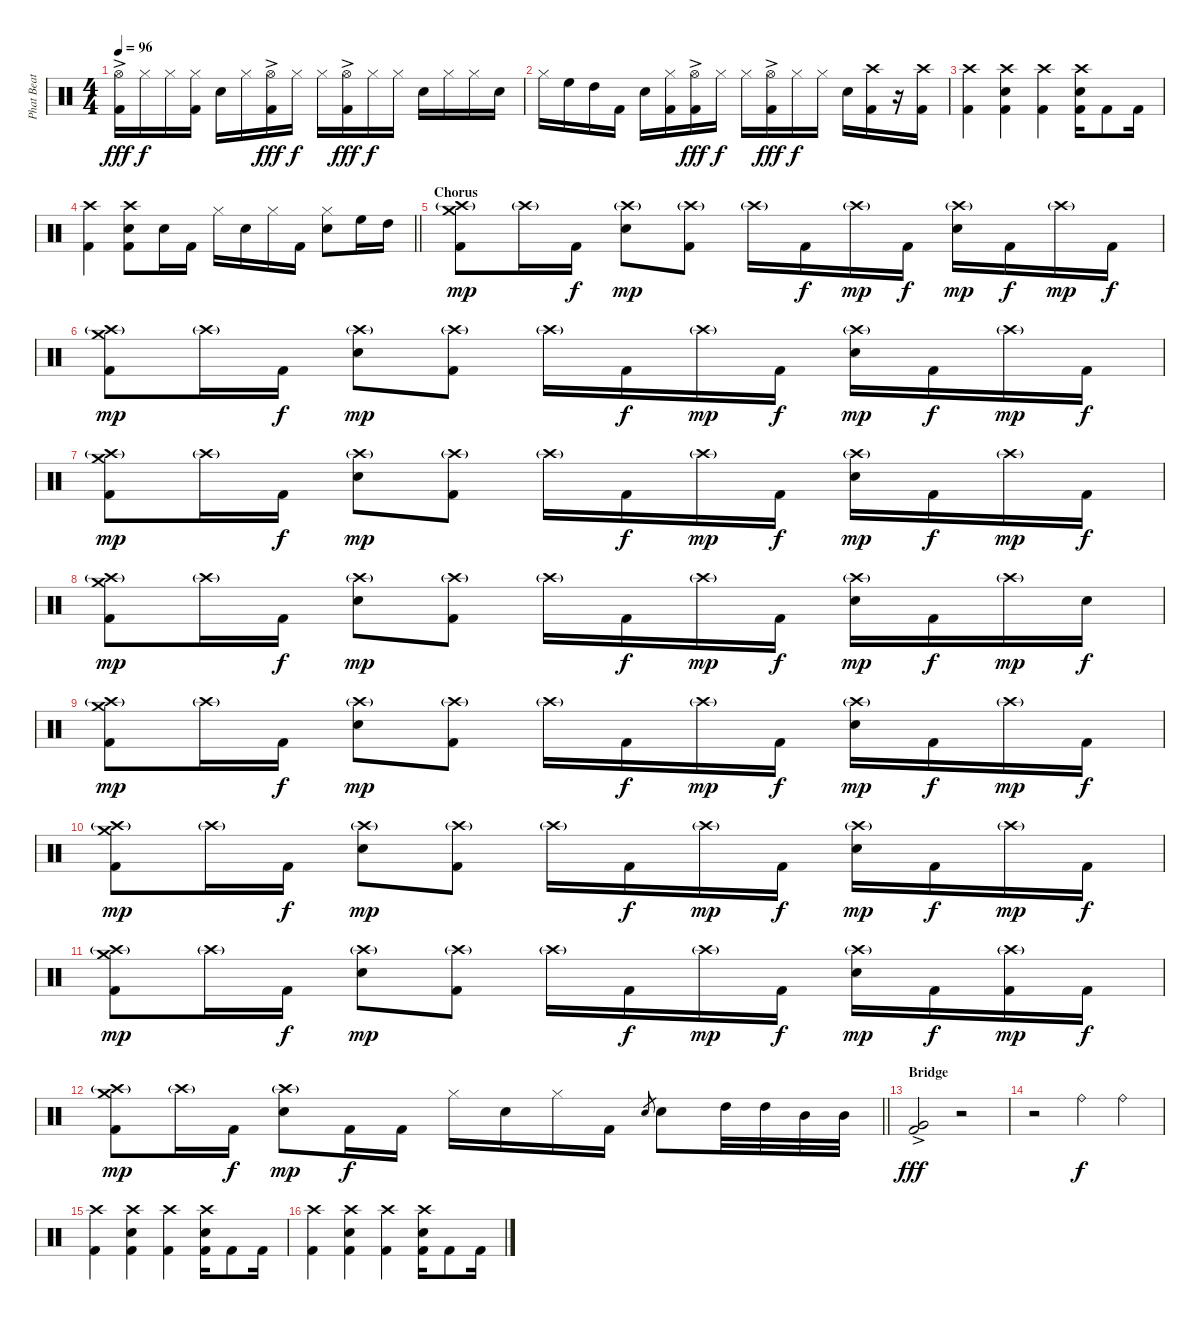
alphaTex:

\track ("Phat Beat" "Phat Beat") {instrument percussion}
\staff {score}
\articulation defaults
\ts (4 4)
\tempo 96
\clef neutral
\ks c
("Hi-Hat (open)"{ac} "Kick (hit) 2").16{dy fff} "Hi-Hat (closed)".16{dy f} "Hi-Hat (closed)".16 ("Hi-Hat (closed)" "Kick (hit) 2").16 "Snare (hit) 2".16 "Hi-Hat (closed)".16 ("Hi-Hat (open)"{ac} "Kick (hit) 2").16{dy fff} "Hi-Hat (closed)".16{dy f} "Hi-Hat (closed)".16 ("Hi-Hat (open)"{ac} "Kick (hit) 2").16{dy fff} "Hi-Hat (closed)".16{dy f} "Hi-Hat (closed)".16 "Snare (hit) 2".16 "Hi-Hat (closed)".16 "Hi-Hat (closed)".16 "Snare (hit) 2".16 |
"Hi-Hat (closed)".16 "High Floor Tom (hit)".16 "High Tom (hit)".16 "Kick (hit) 2".16 "Snare (hit) 2".16 ("Hi-Hat (closed)" "Kick (hit) 2").16 ("Hi-Hat (open)"{ac} "Kick (hit) 2").16{dy fff} "Hi-Hat (closed)".16{dy f} "Hi-Hat (closed)".16 ("Hi-Hat (open)"{ac} "Kick (hit) 2").16{dy fff} "Hi-Hat (closed)".16{dy f} "Hi-Hat (closed)".16 "Snare (hit) 2".16 ("Crash high (hit)" "Kick (hit) 2").16 r.16 ("Crash high (hit)" "Kick (hit) 2").16 |
("Crash high (hit)" "Kick (hit) 2").4 ("Crash high (hit)" "Snare (hit) 2" "Kick (hit) 2").4 ("Crash high (hit)" "Kick (hit) 2").4 ("Crash high (hit)" "Snare (hit) 2" "Kick (hit) 2").16 "Kick (hit) 2".8 "Kick (hit) 2".16 |
\barLineRight lightlight
("Crash high (hit)" "Kick (hit) 2").4 ("Crash high (hit)" "Snare (hit) 2" "Kick (hit) 2").8 "Snare (hit) 2".16 "Kick (hit) 2".16 "Hi-Hat (closed)".16 "Snare (hit) 2".16 "Hi-Hat (closed)".16 "Kick (hit) 2".16 ("Hi-Hat (closed)" "Snare (hit) 2").8 "High Floor Tom (hit)".16 "High Tom (hit)".16 |
\section ("" "Chorus")
("Crash high (hit)"{g} "Crash medium (hit)" "Kick (hit) 2").8{dy mp} "Crash high (hit)"{g}.16 "Kick (hit) 2".16{dy f} ("Crash high (hit)"{g} "Snare (hit) 2").8{dy mp} ("Crash high (hit)"{g} "Kick (hit) 2").8 "Crash high (hit)"{g}.16 "Kick (hit) 2".16{dy f} "Crash high (hit)"{g}.16{dy mp} "Kick (hit) 2".16{dy f} ("Crash high (hit)"{g} "Snare (hit) 2").16{dy mp} "Kick (hit) 2".16{dy f} "Crash high (hit)"{g}.16{dy mp} "Kick (hit) 2".16{dy f} |
("Crash high (hit)"{g} "Crash medium (hit)" "Kick (hit) 2").8{dy mp} "Crash high (hit)"{g}.16 "Kick (hit) 2".16{dy f} ("Crash high (hit)"{g} "Snare (hit) 2").8{dy mp} ("Crash high (hit)"{g} "Kick (hit) 2").8 "Crash high (hit)"{g}.16 "Kick (hit) 2".16{dy f} "Crash high (hit)"{g}.16{dy mp} "Kick (hit) 2".16{dy f} ("Crash high (hit)"{g} "Snare (hit) 2").16{dy mp} "Kick (hit) 2".16{dy f} "Crash high (hit)"{g}.16{dy mp} "Kick (hit) 2".16{dy f} |
("Crash high (hit)"{g} "Crash medium (hit)" "Kick (hit) 2").8{dy mp} "Crash high (hit)"{g}.16 "Kick (hit) 2".16{dy f} ("Crash high (hit)"{g} "Snare (hit) 2").8{dy mp} ("Crash high (hit)"{g} "Kick (hit) 2").8 "Crash high (hit)"{g}.16 "Kick (hit) 2".16{dy f} "Crash high (hit)"{g}.16{dy mp} "Kick (hit) 2".16{dy f} ("Crash high (hit)"{g} "Snare (hit) 2").16{dy mp} "Kick (hit) 2".16{dy f} "Crash high (hit)"{g}.16{dy mp} "Kick (hit) 2".16{dy f} |
("Crash high (hit)"{g} "Crash medium (hit)" "Kick (hit) 2").8{dy mp} "Crash high (hit)"{g}.16 "Kick (hit) 2".16{dy f} ("Crash high (hit)"{g} "Snare (hit) 2").8{dy mp} ("Crash high (hit)"{g} "Kick (hit) 2").8 "Crash high (hit)"{g}.16 "Kick (hit) 2".16{dy f} "Crash high (hit)"{g}.16{dy mp} "Kick (hit) 2".16{dy f} ("Crash high (hit)"{g} "Snare (hit) 2").16{dy mp} "Kick (hit) 2".16{dy f} "Crash high (hit)"{g}.16{dy mp} "Snare (hit) 2".16{dy f} |
("Crash high (hit)"{g} "Crash medium (hit)" "Kick (hit) 2").8{dy mp} "Crash high (hit)"{g}.16 "Kick (hit) 2".16{dy f} ("Crash high (hit)"{g} "Snare (hit) 2").8{dy mp} ("Crash high (hit)"{g} "Kick (hit) 2").8 "Crash high (hit)"{g}.16 "Kick (hit) 2".16{dy f} "Crash high (hit)"{g}.16{dy mp} "Kick (hit) 2".16{dy f} ("Crash high (hit)"{g} "Snare (hit) 2").16{dy mp} "Kick (hit) 2".16{dy f} "Crash high (hit)"{g}.16{dy mp} "Kick (hit) 2".16{dy f} |
("Crash high (hit)"{g} "Crash medium (hit)" "Kick (hit) 2").8{dy mp} "Crash high (hit)"{g}.16 "Kick (hit) 2".16{dy f} ("Crash high (hit)"{g} "Snare (hit) 2").8{dy mp} ("Crash high (hit)"{g} "Kick (hit) 2").8 "Crash high (hit)"{g}.16 "Kick (hit) 2".16{dy f} "Crash high (hit)"{g}.16{dy mp} "Kick (hit) 2".16{dy f} ("Crash high (hit)"{g} "Snare (hit) 2").16{dy mp} "Kick (hit) 2".16{dy f} "Crash high (hit)"{g}.16{dy mp} "Kick (hit) 2".16{dy f} |
("Crash high (hit)"{g} "Crash medium (hit)" "Kick (hit) 2").8{dy mp} "Crash high (hit)"{g}.16 "Kick (hit) 2".16{dy f} ("Crash high (hit)"{g} "Snare (hit) 2").8{dy mp} ("Crash high (hit)"{g} "Kick (hit) 2").8 "Crash high (hit)"{g}.16 "Kick (hit) 2".16{dy f} "Crash high (hit)"{g}.16{dy mp} "Kick (hit) 2".16{dy f} ("Crash high (hit)"{g} "Snare (hit) 2").16{dy mp} "Kick (hit) 2".16{dy f} ("Crash high (hit)"{g} "Kick (hit) 2").16{dy mp} "Kick (hit) 2".16{dy f} |
\barLineRight lightlight
("Crash high (hit)"{g} "Crash medium (hit)" "Kick (hit) 2").8{dy mp} "Crash high (hit)"{g}.16 "Kick (hit) 2".16{dy f} ("Crash high (hit)"{g} "Snare (hit) 2").8{dy mp} "Kick (hit) 2".16{dy f} "Kick (hit) 2".16 "Hi-Hat (closed)".16 "Snare (hit) 2".16 "Hi-Hat (closed)".16 "Kick (hit) 2".16 "Snare (hit) 2".8{gr} "Snare (hit) 2".8 "High Tom (hit)".32 "High Tom (hit)".32 "Mid Tom (hit)".32 "Mid Tom (hit)".32 |
\section ("" "Bridge")
("Very Low Tom (hit)" "Kick (hit) 2"{ac}).2{dy fff} r.2 |
r.2 "Ride (bell)".4{dy f} "Ride (bell)".4 |
("Crash high (hit)" "Kick (hit) 2").4 ("Crash high (hit)" "Snare (hit) 2" "Kick (hit) 2").4 ("Crash high (hit)" "Kick (hit) 2").4 ("Crash high (hit)" "Snare (hit) 2" "Kick (hit) 2").16 "Kick (hit) 2".8 "Kick (hit) 2".16 |
("Crash high (hit)" "Kick (hit) 2").4 ("Crash high (hit)" "Snare (hit) 2" "Kick (hit) 2").4 ("Crash high (hit)" "Kick (hit) 2").4 ("Crash high (hit)" "Snare (hit) 2" "Kick (hit) 2").16 "Kick (hit) 2".8 "Kick (hit) 2".16
